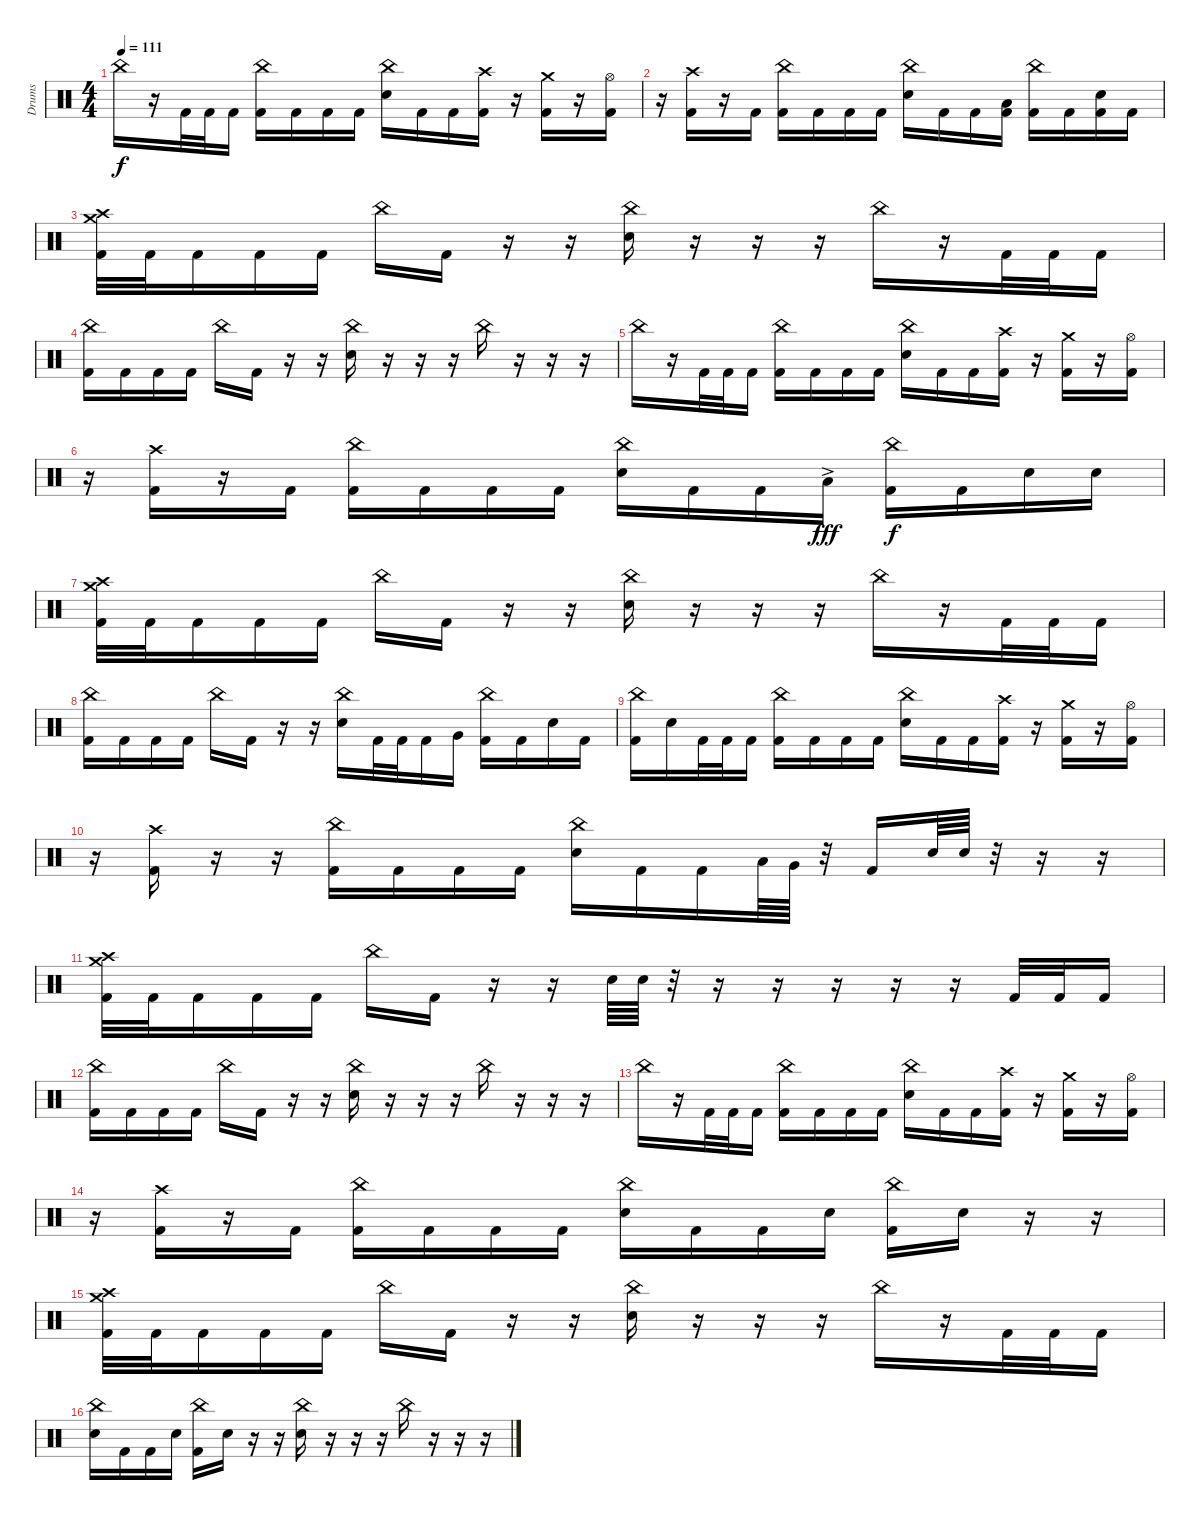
\track ("Drums" "Drums") {instrument percussion}
\staff {score}
\articulation defaults
\ts (4 4)
\tempo 111
\clef neutral
\ks c "China (hit)".16{dy f}
r.16 "Kick (hit) 2".32 "Kick (hit) 2".32 "Kick (hit) 2".16 ("China (hit)" "Kick (hit) 2").16 "Kick (hit) 2".16 "Kick (hit) 2".16 "Kick (hit) 2".16 ("China (hit)" "Electric Snare (hit)").16 "Kick (hit) 2".16 "Kick (hit) 2".16 ("Crash high (hit)" "Kick (hit) 2").16 r.16 ("Crash medium (hit)" "Kick (hit) 2").16 r.16 ("Hi-Hat (open)" "Kick (hit) 2").16 |
r.16 ("Crash high (hit)" "Kick (hit) 2").16 r.16 "Kick (hit) 2".16 ("China (hit)" "Kick (hit) 2").16 "Kick (hit) 2".16 "Kick (hit) 2".16 "Kick (hit) 2".16 ("China (hit)" "Electric Snare (hit)").16 "Kick (hit) 2".16 "Kick (hit) 2".16 ("Low Tom (hit)" "Kick (hit) 2").16 ("China (hit)" "Kick (hit) 2").16 "Kick (hit) 2".16 ("Electric Snare (hit)" "Kick (hit) 2").16 "Kick (hit) 2".16 |
("Crash medium (hit)" "Crash high (hit)" "Kick (hit) 2").32 "Kick (hit) 2".32 "Kick (hit) 2".16 "Kick (hit) 2".16 "Kick (hit) 2".16 "China (hit)".16 "Kick (hit) 2".16 r.16 r.16 ("China (hit)" "Electric Snare (hit)").16 r.16 r.16 r.16 "China (hit)".16 r.16 "Kick (hit) 2".32 "Kick (hit) 2".32 "Kick (hit) 2".16 |
("China (hit)" "Kick (hit) 2").16 "Kick (hit) 2".16 "Kick (hit) 2".16 "Kick (hit) 2".16 "China (hit)".16 "Kick (hit) 2".16 r.16 r.16 ("China (hit)" "Electric Snare (hit)").16 r.16 r.16 r.16 "China (hit)".16 r.16 r.16 r.16 |
"China (hit)".16 r.16 "Kick (hit) 2".32 "Kick (hit) 2".32 "Kick (hit) 2".16 ("China (hit)" "Kick (hit) 2").16 "Kick (hit) 2".16 "Kick (hit) 2".16 "Kick (hit) 2".16 ("China (hit)" "Electric Snare (hit)").16 "Kick (hit) 2".16 "Kick (hit) 2".16 ("Crash high (hit)" "Kick (hit) 2").16 r.16 ("Crash medium (hit)" "Kick (hit) 2").16 r.16 ("Hi-Hat (open)" "Kick (hit) 2").16 |
r.16 ("Crash high (hit)" "Kick (hit) 2").16 r.16 "Kick (hit) 2".16 ("China (hit)" "Kick (hit) 2").16 "Kick (hit) 2".16 "Kick (hit) 2".16 "Kick (hit) 2".16 ("China (hit)" "Electric Snare (hit)").16 "Kick (hit) 2".16 "Kick (hit) 2".16 "Low Floor Tom (hit)"{ac}.16{dy fff} ("China (hit)" "Kick (hit) 2").16{dy f} "Kick (hit) 2".16 "Electric Snare (hit)".16 "Electric Snare (hit)".16 |
("Crash medium (hit)" "Crash high (hit)" "Kick (hit) 2").32{volume 9} "Kick (hit) 2".32 "Kick (hit) 2".16 "Kick (hit) 2".16 "Kick (hit) 2".16 "China (hit)".16 "Kick (hit) 2".16 r.16 r.16 ("China (hit)" "Electric Snare (hit)").16 r.16 r.16 r.16 "China (hit)".16 r.16 "Kick (hit) 2".32 "Kick (hit) 2".32 "Kick (hit) 2".16 |
("China (hit)" "Kick (hit) 2").16 "Kick (hit) 2".16 "Kick (hit) 2".16 "Kick (hit) 2".16 "China (hit)".16 "Kick (hit) 2".16 r.16 r.16 ("China (hit)" "Electric Snare (hit)").16 "Kick (hit) 2".32 "Kick (hit) 2".32 "Kick (hit) 2".16 "Very Low Tom (hit)".16 ("China (hit)" "Kick (hit) 2").16 "Kick (hit) 2".16 "Electric Snare (hit)".16 "Kick (hit) 2".16 |
("China (hit)" "Kick (hit) 2").16 "Electric Snare (hit)".16 "Kick (hit) 2".32 "Kick (hit) 2".32 "Kick (hit) 2".16 ("China (hit)" "Kick (hit) 2").16 "Kick (hit) 2".16 "Kick (hit) 2".16 "Kick (hit) 2".16 ("China (hit)" "Electric Snare (hit)").16 "Kick (hit) 2".16 "Kick (hit) 2".16 ("Crash high (hit)" "Kick (hit) 2").16 r.16 ("Crash medium (hit)" "Kick (hit) 2").16 r.16 ("Hi-Hat (open)" "Kick (hit) 2").16 |
r.16 ("Crash high (hit)" "Kick (hit) 2").16 r.16 r.16 ("China (hit)" "Kick (hit) 2").16 "Kick (hit) 2".16 "Kick (hit) 2".16 "Kick (hit) 2".16 ("China (hit)" "Electric Snare (hit)").16 "Kick (hit) 2".16 "Kick (hit) 2".16 "Low Tom (hit)".64 "Very Low Tom (hit)".64 r.32 "Kick (hit) 2".16 "Electric Snare (hit)".64 "Electric Snare (hit)".64 r.32 r.16 r.16 |
("Crash medium (hit)" "Crash high (hit)" "Kick (hit) 2").32{volume 5} "Kick (hit) 2".32 "Kick (hit) 2".16 "Kick (hit) 2".16 "Kick (hit) 2".16 "China (hit)".16 "Kick (hit) 2".16 r.16 r.16 "Electric Snare (hit)".64 "Electric Snare (hit)".64 r.32 r.16 r.16 r.16 r.16 r.16 "Kick (hit) 2".32 "Kick (hit) 2".32 "Kick (hit) 2".16 |
("China (hit)" "Kick (hit) 2").16 "Kick (hit) 2".16 "Kick (hit) 2".16 "Kick (hit) 2".16 "China (hit)".16 "Kick (hit) 2".16 r.16 r.16 ("China (hit)" "Electric Snare (hit)").16 r.16 r.16 r.16 "China (hit)".16 r.16 r.16 r.16 |
"China (hit)".16 r.16 "Kick (hit) 2".32 "Kick (hit) 2".32 "Kick (hit) 2".16 ("China (hit)" "Kick (hit) 2").16 "Kick (hit) 2".16 "Kick (hit) 2".16 "Kick (hit) 2".16 ("China (hit)" "Electric Snare (hit)").16 "Kick (hit) 2".16 "Kick (hit) 2".16 ("Crash high (hit)" "Kick (hit) 2").16 r.16 ("Crash medium (hit)" "Kick (hit) 2").16 r.16 ("Hi-Hat (open)" "Kick (hit) 2").16 |
r.16 ("Crash high (hit)" "Kick (hit) 2").16 r.16 "Kick (hit) 2".16 ("China (hit)" "Kick (hit) 2").16 "Kick (hit) 2".16 "Kick (hit) 2".16 "Kick (hit) 2".16 ("China (hit)" "Electric Snare (hit)").16 "Kick (hit) 2".16 "Kick (hit) 2".16 "Electric Snare (hit)".16 ("China (hit)" "Kick (hit) 2").16 "Electric Snare (hit)".16 r.16 r.16 |
("Crash medium (hit)" "Crash high (hit)" "Kick (hit) 2").32{volume 0} "Kick (hit) 2".32 "Kick (hit) 2".16 "Kick (hit) 2".16 "Kick (hit) 2".16 "China (hit)".16 "Kick (hit) 2".16 r.16 r.16 ("China (hit)" "Electric Snare (hit)").16 r.16 r.16 r.16 "China (hit)".16 r.16 "Kick (hit) 2".32 "Kick (hit) 2".32 "Kick (hit) 2".16 |
("China (hit)" "Electric Snare (hit)").16 "Kick (hit) 2".16 "Kick (hit) 2".16 "Electric Snare (hit)".16 ("China (hit)" "Kick (hit) 2").16 "Electric Snare (hit)".16 r.16 r.16 ("China (hit)" "Electric Snare (hit)").16 r.16 r.16 r.16 "China (hit)".16 r.16 r.16 r.16
